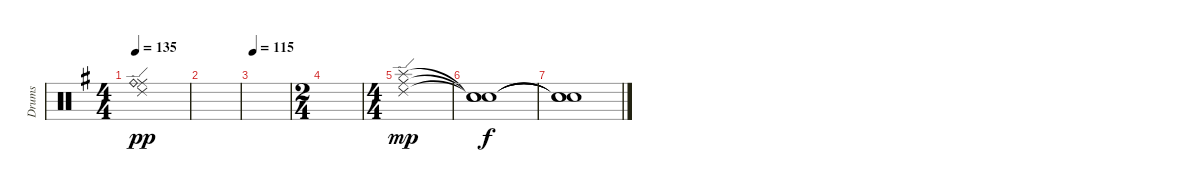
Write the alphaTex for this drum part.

\track ("Drums" "Drums") {instrument percussion}
\staff {score}
\articulation defaults
\ts (4 4)
\tempo 135
\clef neutral
\ks eminor
("Ride (middle)" "Ride (edge) 2" "Ride (bell)").1{dy pp} |
|
\tempo 115
|
\ts (2 4)
|
\ts (4 4)
("Splash (hit)" "Ride (middle)" "Ride (edge) 2").1{dy mp} |
("Snare (hit)"{t} "Snare (hit)"{t} "Snare (hit)"{t}).1{dy f} |
("Snare (hit)"{t} "Snare (hit)"{t} "Snare (hit)"{t}).1
